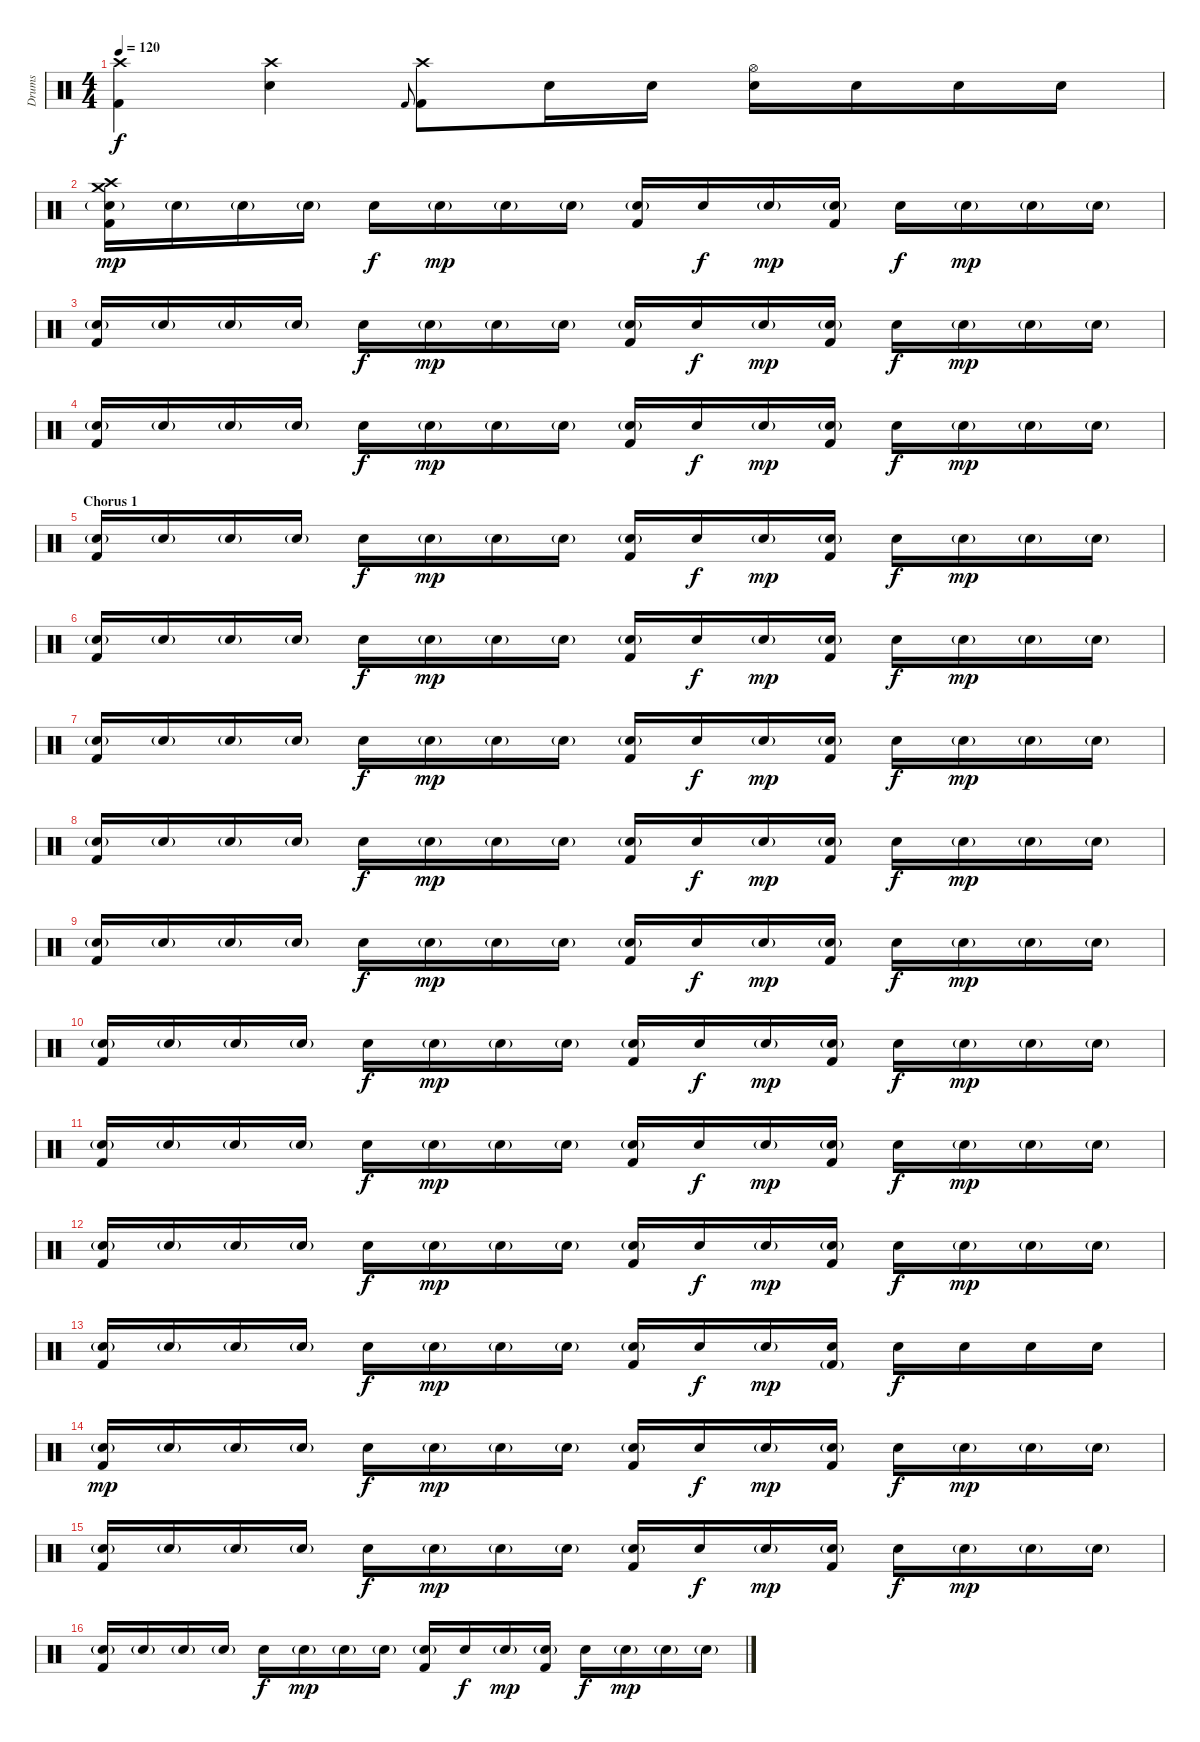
\track ("Drums" "Drums") {instrument percussion}
\staff {score}
\articulation defaults
\ts (4 4)
\tempo 120
\clef neutral
\ks c
("Crash high (hit)" "Kick (hit) 2").4{dy f} ("Crash high (hit)" "Electric Snare (hit)").4 "Kick (hit) 2".8{gr onbeat} ("Crash high (hit)" "Kick (hit) 2").8 "Electric Snare (hit)".16 "Electric Snare (hit)".16 ("Hi-Hat (open)" "Electric Snare (hit)").16 "Electric Snare (hit)".16 "Electric Snare (hit)".16 "Electric Snare (hit)".16 |
("Crash high (hit)" "Crash medium (hit)" "Electric Snare (hit)"{g} "Kick (hit) 2").16{dy mp} "Electric Snare (hit)"{g}.16 "Electric Snare (hit)"{g}.16 "Electric Snare (hit)"{g}.16 "Electric Snare (hit)".16{dy f} "Electric Snare (hit)"{g}.16{dy mp} "Electric Snare (hit)"{g}.16 "Electric Snare (hit)"{g}.16 ("Electric Snare (hit)"{g} "Kick (hit) 2").16 "Electric Snare (hit)".16{dy f} "Electric Snare (hit)"{g}.16{dy mp} ("Electric Snare (hit)"{g} "Kick (hit) 2").16 "Electric Snare (hit)".16{dy f} "Electric Snare (hit)"{g}.16{dy mp} "Electric Snare (hit)"{g}.16 "Electric Snare (hit)"{g}.16 |
("Electric Snare (hit)"{g} "Kick (hit) 2").16 "Electric Snare (hit)"{g}.16 "Electric Snare (hit)"{g}.16 "Electric Snare (hit)"{g}.16 "Electric Snare (hit)".16{dy f} "Electric Snare (hit)"{g}.16{dy mp} "Electric Snare (hit)"{g}.16 "Electric Snare (hit)"{g}.16 ("Electric Snare (hit)"{g} "Kick (hit) 2").16 "Electric Snare (hit)".16{dy f} "Electric Snare (hit)"{g}.16{dy mp} ("Electric Snare (hit)"{g} "Kick (hit) 2").16 "Electric Snare (hit)".16{dy f} "Electric Snare (hit)"{g}.16{dy mp} "Electric Snare (hit)"{g}.16 "Electric Snare (hit)"{g}.16 |
("Electric Snare (hit)"{g} "Kick (hit) 2").16 "Electric Snare (hit)"{g}.16 "Electric Snare (hit)"{g}.16 "Electric Snare (hit)"{g}.16 "Electric Snare (hit)".16{dy f} "Electric Snare (hit)"{g}.16{dy mp} "Electric Snare (hit)"{g}.16 "Electric Snare (hit)"{g}.16 ("Electric Snare (hit)"{g} "Kick (hit) 2").16 "Electric Snare (hit)".16{dy f} "Electric Snare (hit)"{g}.16{dy mp} ("Electric Snare (hit)"{g} "Kick (hit) 2").16 "Electric Snare (hit)".16{dy f} "Electric Snare (hit)"{g}.16{dy mp} "Electric Snare (hit)"{g}.16 "Electric Snare (hit)"{g}.16 |
\section ("" "Chorus 1")
("Electric Snare (hit)"{g} "Kick (hit) 2").16 "Electric Snare (hit)"{g}.16 "Electric Snare (hit)"{g}.16 "Electric Snare (hit)"{g}.16 "Electric Snare (hit)".16{dy f} "Electric Snare (hit)"{g}.16{dy mp} "Electric Snare (hit)"{g}.16 "Electric Snare (hit)"{g}.16 ("Electric Snare (hit)"{g} "Kick (hit) 2").16 "Electric Snare (hit)".16{dy f} "Electric Snare (hit)"{g}.16{dy mp} ("Electric Snare (hit)"{g} "Kick (hit) 2").16 "Electric Snare (hit)".16{dy f} "Electric Snare (hit)"{g}.16{dy mp} "Electric Snare (hit)"{g}.16 "Electric Snare (hit)"{g}.16 |
("Electric Snare (hit)"{g} "Kick (hit) 2").16 "Electric Snare (hit)"{g}.16 "Electric Snare (hit)"{g}.16 "Electric Snare (hit)"{g}.16 "Electric Snare (hit)".16{dy f} "Electric Snare (hit)"{g}.16{dy mp} "Electric Snare (hit)"{g}.16 "Electric Snare (hit)"{g}.16 ("Electric Snare (hit)"{g} "Kick (hit) 2").16 "Electric Snare (hit)".16{dy f} "Electric Snare (hit)"{g}.16{dy mp} ("Electric Snare (hit)"{g} "Kick (hit) 2").16 "Electric Snare (hit)".16{dy f} "Electric Snare (hit)"{g}.16{dy mp} "Electric Snare (hit)"{g}.16 "Electric Snare (hit)"{g}.16 |
("Electric Snare (hit)"{g} "Kick (hit) 2").16 "Electric Snare (hit)"{g}.16 "Electric Snare (hit)"{g}.16 "Electric Snare (hit)"{g}.16 "Electric Snare (hit)".16{dy f} "Electric Snare (hit)"{g}.16{dy mp} "Electric Snare (hit)"{g}.16 "Electric Snare (hit)"{g}.16 ("Electric Snare (hit)"{g} "Kick (hit) 2").16 "Electric Snare (hit)".16{dy f} "Electric Snare (hit)"{g}.16{dy mp} ("Electric Snare (hit)"{g} "Kick (hit) 2").16 "Electric Snare (hit)".16{dy f} "Electric Snare (hit)"{g}.16{dy mp} "Electric Snare (hit)"{g}.16 "Electric Snare (hit)"{g}.16 |
("Electric Snare (hit)"{g} "Kick (hit) 2").16 "Electric Snare (hit)"{g}.16 "Electric Snare (hit)"{g}.16 "Electric Snare (hit)"{g}.16 "Electric Snare (hit)".16{dy f} "Electric Snare (hit)"{g}.16{dy mp} "Electric Snare (hit)"{g}.16 "Electric Snare (hit)"{g}.16 ("Electric Snare (hit)"{g} "Kick (hit) 2").16 "Electric Snare (hit)".16{dy f} "Electric Snare (hit)"{g}.16{dy mp} ("Electric Snare (hit)"{g} "Kick (hit) 2").16 "Electric Snare (hit)".16{dy f} "Electric Snare (hit)"{g}.16{dy mp} "Electric Snare (hit)"{g}.16 "Electric Snare (hit)"{g}.16 |
("Electric Snare (hit)"{g} "Kick (hit) 2").16 "Electric Snare (hit)"{g}.16 "Electric Snare (hit)"{g}.16 "Electric Snare (hit)"{g}.16 "Electric Snare (hit)".16{dy f} "Electric Snare (hit)"{g}.16{dy mp} "Electric Snare (hit)"{g}.16 "Electric Snare (hit)"{g}.16 ("Electric Snare (hit)"{g} "Kick (hit) 2").16 "Electric Snare (hit)".16{dy f} "Electric Snare (hit)"{g}.16{dy mp} ("Electric Snare (hit)"{g} "Kick (hit) 2").16 "Electric Snare (hit)".16{dy f} "Electric Snare (hit)"{g}.16{dy mp} "Electric Snare (hit)"{g}.16 "Electric Snare (hit)"{g}.16 |
("Electric Snare (hit)"{g} "Kick (hit) 2").16 "Electric Snare (hit)"{g}.16 "Electric Snare (hit)"{g}.16 "Electric Snare (hit)"{g}.16 "Electric Snare (hit)".16{dy f} "Electric Snare (hit)"{g}.16{dy mp} "Electric Snare (hit)"{g}.16 "Electric Snare (hit)"{g}.16 ("Electric Snare (hit)"{g} "Kick (hit) 2").16 "Electric Snare (hit)".16{dy f} "Electric Snare (hit)"{g}.16{dy mp} ("Electric Snare (hit)"{g} "Kick (hit) 2").16 "Electric Snare (hit)".16{dy f} "Electric Snare (hit)"{g}.16{dy mp} "Electric Snare (hit)"{g}.16 "Electric Snare (hit)"{g}.16 |
("Electric Snare (hit)"{g} "Kick (hit) 2").16 "Electric Snare (hit)"{g}.16 "Electric Snare (hit)"{g}.16 "Electric Snare (hit)"{g}.16 "Electric Snare (hit)".16{dy f} "Electric Snare (hit)"{g}.16{dy mp} "Electric Snare (hit)"{g}.16 "Electric Snare (hit)"{g}.16 ("Electric Snare (hit)"{g} "Kick (hit) 2").16 "Electric Snare (hit)".16{dy f} "Electric Snare (hit)"{g}.16{dy mp} ("Electric Snare (hit)"{g} "Kick (hit) 2").16 "Electric Snare (hit)".16{dy f} "Electric Snare (hit)"{g}.16{dy mp} "Electric Snare (hit)"{g}.16 "Electric Snare (hit)"{g}.16 |
("Electric Snare (hit)"{g} "Kick (hit) 2").16 "Electric Snare (hit)"{g}.16 "Electric Snare (hit)"{g}.16 "Electric Snare (hit)"{g}.16 "Electric Snare (hit)".16{dy f} "Electric Snare (hit)"{g}.16{dy mp} "Electric Snare (hit)"{g}.16 "Electric Snare (hit)"{g}.16 ("Electric Snare (hit)"{g} "Kick (hit) 2").16 "Electric Snare (hit)".16{dy f} "Electric Snare (hit)"{g}.16{dy mp} ("Electric Snare (hit)"{g} "Kick (hit) 2").16 "Electric Snare (hit)".16{dy f} "Electric Snare (hit)"{g}.16{dy mp} "Electric Snare (hit)"{g}.16 "Electric Snare (hit)"{g}.16 |
("Electric Snare (hit)"{g} "Kick (hit) 2").16 "Electric Snare (hit)"{g}.16 "Electric Snare (hit)"{g}.16 "Electric Snare (hit)"{g}.16 "Electric Snare (hit)".16{dy f} "Electric Snare (hit)"{g}.16{dy mp} "Electric Snare (hit)"{g}.16 "Electric Snare (hit)"{g}.16 ("Electric Snare (hit)"{g} "Kick (hit) 2").16 "Electric Snare (hit)".16{dy f} "Electric Snare (hit)"{g}.16{dy mp} ("Electric Snare (hit)" "Kick (hit) 2"{g}).16 "Electric Snare (hit)".16{dy f} "Electric Snare (hit)".16 "Electric Snare (hit)".16 "Electric Snare (hit)".16 |
("Electric Snare (hit)"{g} "Kick (hit) 2").16{dy mp} "Electric Snare (hit)"{g}.16 "Electric Snare (hit)"{g}.16 "Electric Snare (hit)"{g}.16 "Electric Snare (hit)".16{dy f} "Electric Snare (hit)"{g}.16{dy mp} "Electric Snare (hit)"{g}.16 "Electric Snare (hit)"{g}.16 ("Electric Snare (hit)"{g} "Kick (hit) 2").16 "Electric Snare (hit)".16{dy f} "Electric Snare (hit)"{g}.16{dy mp} ("Electric Snare (hit)"{g} "Kick (hit) 2").16 "Electric Snare (hit)".16{dy f} "Electric Snare (hit)"{g}.16{dy mp} "Electric Snare (hit)"{g}.16 "Electric Snare (hit)"{g}.16 |
("Electric Snare (hit)"{g} "Kick (hit) 2").16 "Electric Snare (hit)"{g}.16 "Electric Snare (hit)"{g}.16 "Electric Snare (hit)"{g}.16 "Electric Snare (hit)".16{dy f} "Electric Snare (hit)"{g}.16{dy mp} "Electric Snare (hit)"{g}.16 "Electric Snare (hit)"{g}.16 ("Electric Snare (hit)"{g} "Kick (hit) 2").16 "Electric Snare (hit)".16{dy f} "Electric Snare (hit)"{g}.16{dy mp} ("Electric Snare (hit)"{g} "Kick (hit) 2").16 "Electric Snare (hit)".16{dy f} "Electric Snare (hit)"{g}.16{dy mp} "Electric Snare (hit)"{g}.16 "Electric Snare (hit)"{g}.16 |
("Electric Snare (hit)"{g} "Kick (hit) 2").16 "Electric Snare (hit)"{g}.16 "Electric Snare (hit)"{g}.16 "Electric Snare (hit)"{g}.16 "Electric Snare (hit)".16{dy f} "Electric Snare (hit)"{g}.16{dy mp} "Electric Snare (hit)"{g}.16 "Electric Snare (hit)"{g}.16 ("Electric Snare (hit)"{g} "Kick (hit) 2").16 "Electric Snare (hit)".16{dy f} "Electric Snare (hit)"{g}.16{dy mp} ("Electric Snare (hit)"{g} "Kick (hit) 2").16 "Electric Snare (hit)".16{dy f} "Electric Snare (hit)"{g}.16{dy mp} "Electric Snare (hit)"{g}.16 "Electric Snare (hit)"{g}.16
